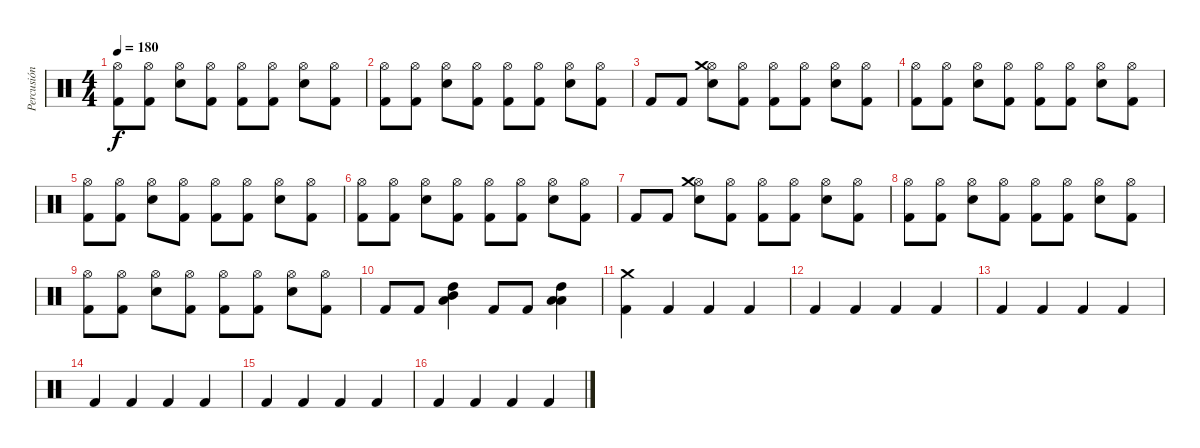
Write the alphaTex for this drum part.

\track ("Percusión" "Percusión") {instrument percussion}
\staff {score}
\articulation defaults
\ts (4 4)
\tempo 180
\clef neutral
\ks c
("Kick (hit) 2" "Hi-Hat (open)").8{dy f} ("Kick (hit) 2" "Hi-Hat (open)").8 ("Electric Snare (hit)" "Hi-Hat (open)").8 ("Kick (hit) 2" "Hi-Hat (open)").8 ("Kick (hit) 2" "Hi-Hat (open)").8 ("Kick (hit) 2" "Hi-Hat (open)").8 ("Electric Snare (hit)" "Hi-Hat (open)").8 ("Kick (hit) 2" "Hi-Hat (open)").8 |
("Kick (hit) 2" "Hi-Hat (open)").8 ("Kick (hit) 2" "Hi-Hat (open)").8 ("Electric Snare (hit)" "Hi-Hat (open)").8 ("Kick (hit) 2" "Hi-Hat (open)").8 ("Kick (hit) 2" "Hi-Hat (open)").8 ("Kick (hit) 2" "Hi-Hat (open)").8 ("Electric Snare (hit)" "Hi-Hat (open)").8 ("Kick (hit) 2" "Hi-Hat (open)").8 |
"Kick (hit) 2".8 "Kick (hit) 2".8 ("Electric Snare (hit)" "Hi-Hat (open)" "Crash medium (hit)").8 ("Kick (hit) 2" "Hi-Hat (open)").8 ("Kick (hit) 2" "Hi-Hat (open)").8 ("Kick (hit) 2" "Hi-Hat (open)").8 ("Electric Snare (hit)" "Hi-Hat (open)").8 ("Kick (hit) 2" "Hi-Hat (open)").8 |
("Kick (hit) 2" "Hi-Hat (open)").8 ("Kick (hit) 2" "Hi-Hat (open)").8 ("Electric Snare (hit)" "Hi-Hat (open)").8 ("Kick (hit) 2" "Hi-Hat (open)").8 ("Kick (hit) 2" "Hi-Hat (open)").8 ("Kick (hit) 2" "Hi-Hat (open)").8 ("Electric Snare (hit)" "Hi-Hat (open)").8 ("Kick (hit) 2" "Hi-Hat (open)").8 |
("Kick (hit) 2" "Hi-Hat (open)").8 ("Kick (hit) 2" "Hi-Hat (open)").8 ("Electric Snare (hit)" "Hi-Hat (open)").8 ("Kick (hit) 2" "Hi-Hat (open)").8 ("Kick (hit) 2" "Hi-Hat (open)").8 ("Kick (hit) 2" "Hi-Hat (open)").8 ("Electric Snare (hit)" "Hi-Hat (open)").8 ("Kick (hit) 2" "Hi-Hat (open)").8 |
("Kick (hit) 2" "Hi-Hat (open)").8 ("Kick (hit) 2" "Hi-Hat (open)").8 ("Electric Snare (hit)" "Hi-Hat (open)").8 ("Kick (hit) 2" "Hi-Hat (open)").8 ("Kick (hit) 2" "Hi-Hat (open)").8 ("Kick (hit) 2" "Hi-Hat (open)").8 ("Electric Snare (hit)" "Hi-Hat (open)").8 ("Kick (hit) 2" "Hi-Hat (open)").8 |
"Kick (hit) 2".8 "Kick (hit) 2".8 ("Electric Snare (hit)" "Hi-Hat (open)" "Crash medium (hit)").8 ("Kick (hit) 2" "Hi-Hat (open)").8 ("Kick (hit) 2" "Hi-Hat (open)").8 ("Kick (hit) 2" "Hi-Hat (open)").8 ("Electric Snare (hit)" "Hi-Hat (open)").8 ("Kick (hit) 2" "Hi-Hat (open)").8 |
("Kick (hit) 2" "Hi-Hat (open)").8 ("Kick (hit) 2" "Hi-Hat (open)").8 ("Electric Snare (hit)" "Hi-Hat (open)").8 ("Kick (hit) 2" "Hi-Hat (open)").8 ("Kick (hit) 2" "Hi-Hat (open)").8 ("Kick (hit) 2" "Hi-Hat (open)").8 ("Electric Snare (hit)" "Hi-Hat (open)").8 ("Kick (hit) 2" "Hi-Hat (open)").8 |
("Kick (hit) 2" "Hi-Hat (open)").8 ("Kick (hit) 2" "Hi-Hat (open)").8 ("Electric Snare (hit)" "Hi-Hat (open)").8 ("Kick (hit) 2" "Hi-Hat (open)").8 ("Kick (hit) 2" "Hi-Hat (open)").8 ("Kick (hit) 2" "Hi-Hat (open)").8 ("Electric Snare (hit)" "Hi-Hat (open)").8 ("Kick (hit) 2" "Hi-Hat (open)").8 |
"Kick (hit) 2".8 "Kick (hit) 2".8 ("Mid Tom (hit)" "Low Tom (hit)" "High Tom (hit)").4 "Kick (hit) 2".8 "Kick (hit) 2".8 ("Low Tom (hit)" "Low Tom (hit)" "High Tom (hit)").4 |
("Kick (hit) 2" "Crash medium (hit)").4 "Kick (hit) 2".4 "Kick (hit) 2".4 "Kick (hit) 2".4 |
"Kick (hit) 2".4 "Kick (hit) 2".4 "Kick (hit) 2".4 "Kick (hit) 2".4 |
"Kick (hit) 2".4 "Kick (hit) 2".4 "Kick (hit) 2".4 "Kick (hit) 2".4 |
"Kick (hit) 2".4 "Kick (hit) 2".4 "Kick (hit) 2".4 "Kick (hit) 2".4 |
"Kick (hit) 2".4 "Kick (hit) 2".4 "Kick (hit) 2".4 "Kick (hit) 2".4 |
"Kick (hit) 2".4 "Kick (hit) 2".4 "Kick (hit) 2".4 "Kick (hit) 2".4
